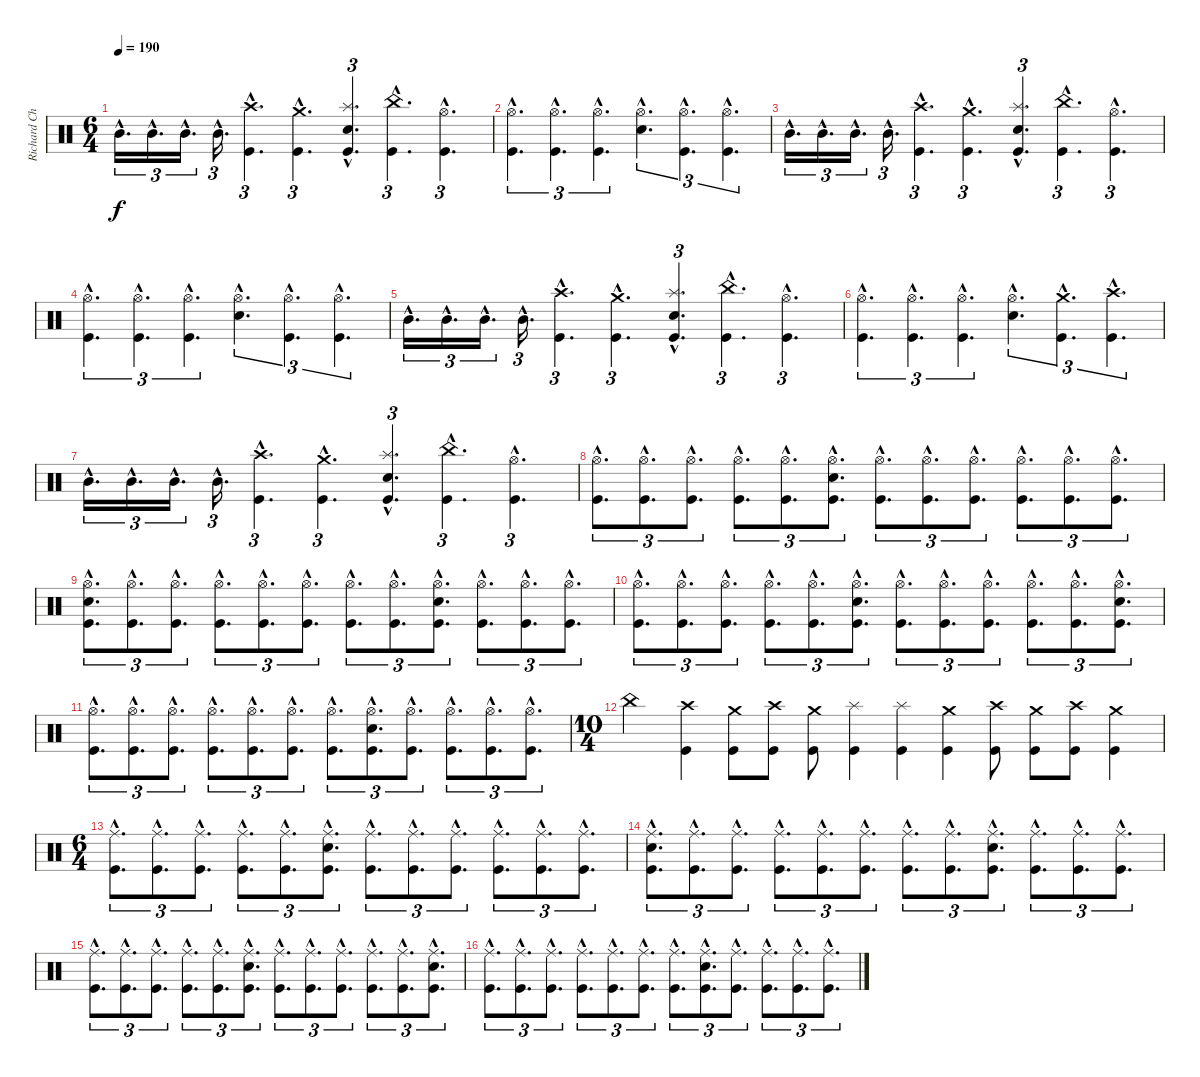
\track ("Richard Christy" "Richard Ch") {instrument percussion}
\staff {score}
\articulation defaults
\ts (6 4)
\tempo 190
\clef neutral
\ks c "Mid Tom (hit)"{hac}.16{d tu (3 2) dy f} "Mid Tom (hit)"{hac}.16{d tu (3 2)} "Mid Tom (hit)"{hac}.16{d tu (3 2)} "Mid Tom (hit)"{hac}.16{d tu (3 2)}
("Crash high (hit)"{hac} "Kick (hit)"{hac}).4{d tu (3 2)} ("Crash medium (hit)"{hac} "Kick (hit)"{hac}).4{d tu (3 2)} ("Splash (hit)"{hac} "Electric Snare (hit)"{hac} "Kick (hit)"{hac}).4{d tu (3 2)} ("China (hit)"{hac} "Kick (hit)"{hac}).4{d tu (3 2)} ("Hi-Hat (open)"{hac} "Kick (hit)"{hac}).4{d tu (3 2)} |
("Hi-Hat (open)"{hac} "Kick (hit)"{hac}).4{d tu (3 2)} ("Hi-Hat (open)"{hac} "Kick (hit)"{hac}).4{d tu (3 2)} ("Hi-Hat (open)"{hac} "Kick (hit)"{hac}).4{d tu (3 2)} ("Hi-Hat (open)"{hac} "Electric Snare (hit)"{hac}).4{d tu (3 2)} ("Hi-Hat (open)"{hac} "Kick (hit)"{hac}).4{d tu (3 2)} ("Hi-Hat (open)"{hac} "Kick (hit)"{hac}).4{d tu (3 2)} |
"Mid Tom (hit)"{hac}.16{d tu (3 2)} "Mid Tom (hit)"{hac}.16{d tu (3 2)} "Mid Tom (hit)"{hac}.16{d tu (3 2)} "Mid Tom (hit)"{hac}.16{d tu (3 2)} ("Crash high (hit)"{hac} "Kick (hit)"{hac}).4{d tu (3 2)} ("Crash medium (hit)"{hac} "Kick (hit)"{hac}).4{d tu (3 2)} ("Splash (hit)"{hac} "Electric Snare (hit)"{hac} "Kick (hit)"{hac}).4{d tu (3 2)} ("China (hit)"{hac} "Kick (hit)"{hac}).4{d tu (3 2)} ("Hi-Hat (open)"{hac} "Kick (hit)"{hac}).4{d tu (3 2)} |
("Hi-Hat (open)"{hac} "Kick (hit)"{hac}).4{d tu (3 2)} ("Hi-Hat (open)"{hac} "Kick (hit)"{hac}).4{d tu (3 2)} ("Hi-Hat (open)"{hac} "Kick (hit)"{hac}).4{d tu (3 2)} ("Hi-Hat (open)"{hac} "Electric Snare (hit)"{hac}).4{d tu (3 2)} ("Hi-Hat (open)"{hac} "Kick (hit)"{hac}).4{d tu (3 2)} ("Hi-Hat (open)"{hac} "Kick (hit)"{hac}).4{d tu (3 2)} |
"Mid Tom (hit)"{hac}.16{d tu (3 2)} "Mid Tom (hit)"{hac}.16{d tu (3 2)} "Mid Tom (hit)"{hac}.16{d tu (3 2)} "Mid Tom (hit)"{hac}.16{d tu (3 2)} ("Crash high (hit)"{hac} "Kick (hit)"{hac}).4{d tu (3 2)} ("Crash medium (hit)"{hac} "Kick (hit)"{hac}).4{d tu (3 2)} ("Splash (hit)"{hac} "Electric Snare (hit)"{hac} "Kick (hit)"{hac}).4{d tu (3 2)} ("China (hit)"{hac} "Kick (hit)"{hac}).4{d tu (3 2)} ("Hi-Hat (open)"{hac} "Kick (hit)"{hac}).4{d tu (3 2)} |
("Hi-Hat (open)"{hac} "Kick (hit)"{hac}).4{d tu (3 2)} ("Hi-Hat (open)"{hac} "Kick (hit)"{hac}).4{d tu (3 2)} ("Hi-Hat (open)"{hac} "Kick (hit)"{hac}).4{d tu (3 2)} ("Hi-Hat (open)"{hac} "Electric Snare (hit)"{hac}).4{d tu (3 2)} ("Crash medium (hit)"{hac} "Kick (hit)"{hac}).4{d tu (3 2)} ("Crash high (hit)"{hac} "Kick (hit)"{hac}).4{d tu (3 2)} |
"Mid Tom (hit)"{hac}.16{d tu (3 2)} "Mid Tom (hit)"{hac}.16{d tu (3 2)} "Mid Tom (hit)"{hac}.16{d tu (3 2)} "Mid Tom (hit)"{hac}.16{d tu (3 2)} ("Crash high (hit)"{hac} "Kick (hit)"{hac}).4{d tu (3 2)} ("Crash medium (hit)"{hac} "Kick (hit)"{hac}).4{d tu (3 2)} ("Splash (hit)"{hac} "Electric Snare (hit)"{hac} "Kick (hit)"{hac}).4{d tu (3 2)} ("China (hit)"{hac} "Kick (hit)"{hac}).4{d tu (3 2)} ("Hi-Hat (open)"{hac} "Kick (hit)"{hac}).4{d tu (3 2)} |
("Hi-Hat (open)"{hac} "Kick (hit)"{hac}).8{d tu (3 2)} ("Hi-Hat (open)"{hac} "Kick (hit)"{hac}).8{d tu (3 2)} ("Hi-Hat (open)"{hac} "Kick (hit)"{hac}).8{d tu (3 2)} ("Hi-Hat (open)"{hac} "Kick (hit)"{hac}).8{d tu (3 2)} ("Hi-Hat (open)"{hac} "Kick (hit)"{hac}).8{d tu (3 2)} ("Hi-Hat (open)"{hac} "Electric Snare (hit)"{hac} "Kick (hit)"{hac}).8{d tu (3 2)} ("Hi-Hat (open)"{hac} "Kick (hit)"{hac}).8{d tu (3 2)} ("Hi-Hat (open)"{hac} "Kick (hit)"{hac}).8{d tu (3 2)} ("Hi-Hat (open)"{hac} "Kick (hit)"{hac}).8{d tu (3 2)} ("Hi-Hat (open)"{hac} "Kick (hit)"{hac}).8{d tu (3 2)} ("Hi-Hat (open)"{hac} "Kick (hit)"{hac}).8{d tu (3 2)} ("Hi-Hat (open)"{hac} "Kick (hit)"{hac}).8{d tu (3 2)} |
("Hi-Hat (open)"{hac} "Electric Snare (hit)"{hac} "Kick (hit)"{hac}).8{d tu (3 2)} ("Hi-Hat (open)"{hac} "Kick (hit)"{hac}).8{d tu (3 2)} ("Hi-Hat (open)"{hac} "Kick (hit)"{hac}).8{d tu (3 2)} ("Hi-Hat (open)"{hac} "Kick (hit)"{hac}).8{d tu (3 2)} ("Hi-Hat (open)"{hac} "Kick (hit)"{hac}).8{d tu (3 2)} ("Hi-Hat (open)"{hac} "Kick (hit)"{hac}).8{d tu (3 2)} ("Hi-Hat (open)"{hac} "Kick (hit)"{hac}).8{d tu (3 2)} ("Hi-Hat (open)"{hac} "Kick (hit)"{hac}).8{d tu (3 2)} ("Hi-Hat (open)"{hac} "Electric Snare (hit)"{hac} "Kick (hit)"{hac}).8{d tu (3 2)} ("Hi-Hat (open)"{hac} "Kick (hit)"{hac}).8{d tu (3 2)} ("Hi-Hat (open)"{hac} "Kick (hit)"{hac}).8{d tu (3 2)} ("Hi-Hat (open)"{hac} "Kick (hit)"{hac}).8{d tu (3 2)} |
("Hi-Hat (open)"{hac} "Kick (hit)"{hac}).8{d tu (3 2)} ("Hi-Hat (open)"{hac} "Kick (hit)"{hac}).8{d tu (3 2)} ("Hi-Hat (open)"{hac} "Kick (hit)"{hac}).8{d tu (3 2)} ("Hi-Hat (open)"{hac} "Kick (hit)"{hac}).8{d tu (3 2)} ("Hi-Hat (open)"{hac} "Kick (hit)"{hac}).8{d tu (3 2)} ("Hi-Hat (open)"{hac} "Electric Snare (hit)"{hac} "Kick (hit)"{hac}).8{d tu (3 2)} ("Hi-Hat (open)"{hac} "Kick (hit)"{hac}).8{d tu (3 2)} ("Hi-Hat (open)"{hac} "Kick (hit)"{hac}).8{d tu (3 2)} ("Hi-Hat (open)"{hac} "Kick (hit)"{hac}).8{d tu (3 2)} ("Hi-Hat (open)"{hac} "Kick (hit)"{hac}).8{d tu (3 2)} ("Hi-Hat (open)"{hac} "Kick (hit)"{hac}).8{d tu (3 2)} ("Hi-Hat (open)"{hac} "Electric Snare (hit)"{hac} "Kick (hit)"{hac}).8{d tu (3 2)} |
("Hi-Hat (open)"{hac} "Kick (hit)"{hac}).8{d tu (3 2)} ("Hi-Hat (open)"{hac} "Kick (hit)"{hac}).8{d tu (3 2)} ("Hi-Hat (open)"{hac} "Kick (hit)"{hac}).8{d tu (3 2)} ("Hi-Hat (open)"{hac} "Kick (hit)"{hac}).8{d tu (3 2)} ("Hi-Hat (open)"{hac} "Kick (hit)"{hac}).8{d tu (3 2)} ("Hi-Hat (open)"{hac} "Kick (hit)"{hac}).8{d tu (3 2)} ("Hi-Hat (open)"{hac} "Kick (hit)"{hac}).8{d tu (3 2)} ("Hi-Hat (open)"{hac} "Electric Snare (hit)"{hac} "Kick (hit)"{hac}).8{d tu (3 2)} ("Hi-Hat (open)"{hac} "Kick (hit)"{hac}).8{d tu (3 2)} ("Hi-Hat (open)"{hac} "Kick (hit)"{hac}).8{d tu (3 2)} ("Hi-Hat (open)"{hac} "Kick (hit)"{hac}).8{d tu (3 2)} ("Hi-Hat (open)"{hac} "Kick (hit)"{hac}).8{d tu (3 2)} |
\ts (10 4)
"China (hit)".2 ("Crash high (hit)" "Kick (hit)").4 ("Crash medium (hit)" "Kick (hit)").8 ("Crash high (hit)" "Kick (hit)").8 ("Crash medium (hit)" "Kick (hit)").8 ("Splash (hit)" "Kick (hit)").4 ("Splash (hit)" "Kick (hit)").4 ("Crash medium (hit)" "Kick (hit)").4 ("Crash high (hit)" "Kick (hit)").8 ("Crash medium (hit)" "Kick (hit)").8 ("Crash high (hit)" "Kick (hit)").8 ("Crash medium (hit)" "Kick (hit)").4 |
\ts (6 4)
("Ride (middle)"{hac} "Kick (hit)"{hac}).8{d tu (3 2)} ("Ride (middle)"{hac} "Kick (hit)"{hac}).8{d tu (3 2)} ("Ride (middle)"{hac} "Kick (hit)"{hac}).8{d tu (3 2)} ("Ride (middle)"{hac} "Kick (hit)"{hac}).8{d tu (3 2)} ("Ride (middle)"{hac} "Kick (hit)"{hac}).8{d tu (3 2)} ("Ride (middle)"{hac} "Electric Snare (hit)"{hac} "Kick (hit)"{hac}).8{d tu (3 2)} ("Ride (middle)"{hac} "Kick (hit)"{hac}).8{d tu (3 2)} ("Ride (middle)"{hac} "Kick (hit)"{hac}).8{d tu (3 2)} ("Ride (middle)"{hac} "Kick (hit)"{hac}).8{d tu (3 2)} ("Ride (middle)"{hac} "Kick (hit)"{hac}).8{d tu (3 2)} ("Ride (middle)"{hac} "Kick (hit)"{hac}).8{d tu (3 2)} ("Ride (middle)"{hac} "Kick (hit)"{hac}).8{d tu (3 2)} |
("Ride (middle)"{hac} "Electric Snare (hit)"{hac} "Kick (hit)"{hac}).8{d tu (3 2)} ("Ride (middle)"{hac} "Kick (hit)"{hac}).8{d tu (3 2)} ("Ride (middle)"{hac} "Kick (hit)"{hac}).8{d tu (3 2)} ("Ride (middle)"{hac} "Kick (hit)"{hac}).8{d tu (3 2)} ("Ride (middle)"{hac} "Kick (hit)"{hac}).8{d tu (3 2)} ("Ride (middle)"{hac} "Kick (hit)"{hac}).8{d tu (3 2)} ("Ride (middle)"{hac} "Kick (hit)"{hac}).8{d tu (3 2)} ("Ride (middle)"{hac} "Kick (hit)"{hac}).8{d tu (3 2)} ("Ride (middle)"{hac} "Electric Snare (hit)"{hac} "Kick (hit)"{hac}).8{d tu (3 2)} ("Ride (middle)"{hac} "Kick (hit)"{hac}).8{d tu (3 2)} ("Ride (middle)"{hac} "Kick (hit)"{hac}).8{d tu (3 2)} ("Ride (middle)"{hac} "Kick (hit)"{hac}).8{d tu (3 2)} |
("Ride (middle)"{hac} "Kick (hit)"{hac}).8{d tu (3 2)} ("Ride (middle)"{hac} "Kick (hit)"{hac}).8{d tu (3 2)} ("Ride (middle)"{hac} "Kick (hit)"{hac}).8{d tu (3 2)} ("Ride (middle)"{hac} "Kick (hit)"{hac}).8{d tu (3 2)} ("Ride (middle)"{hac} "Kick (hit)"{hac}).8{d tu (3 2)} ("Ride (middle)"{hac} "Electric Snare (hit)"{hac} "Kick (hit)"{hac}).8{d tu (3 2)} ("Ride (middle)"{hac} "Kick (hit)"{hac}).8{d tu (3 2)} ("Ride (middle)"{hac} "Kick (hit)"{hac}).8{d tu (3 2)} ("Ride (middle)"{hac} "Kick (hit)"{hac}).8{d tu (3 2)} ("Ride (middle)"{hac} "Kick (hit)"{hac}).8{d tu (3 2)} ("Ride (middle)"{hac} "Kick (hit)"{hac}).8{d tu (3 2)} ("Ride (middle)"{hac} "Electric Snare (hit)"{hac} "Kick (hit)"{hac}).8{d tu (3 2)} |
("Ride (middle)"{hac} "Kick (hit)"{hac}).8{d tu (3 2)} ("Ride (middle)"{hac} "Kick (hit)"{hac}).8{d tu (3 2)} ("Ride (middle)"{hac} "Kick (hit)"{hac}).8{d tu (3 2)} ("Ride (middle)"{hac} "Kick (hit)"{hac}).8{d tu (3 2)} ("Ride (middle)"{hac} "Kick (hit)"{hac}).8{d tu (3 2)} ("Ride (middle)"{hac} "Kick (hit)"{hac}).8{d tu (3 2)} ("Ride (middle)"{hac} "Kick (hit)"{hac}).8{d tu (3 2)} ("Ride (middle)"{hac} "Electric Snare (hit)"{hac} "Kick (hit)"{hac}).8{d tu (3 2)} ("Ride (middle)"{hac} "Kick (hit)"{hac}).8{d tu (3 2)} ("Ride (middle)"{hac} "Kick (hit)"{hac}).8{d tu (3 2)} ("Ride (middle)"{hac} "Kick (hit)"{hac}).8{d tu (3 2)} ("Ride (middle)"{hac} "Kick (hit)"{hac}).8{d tu (3 2)}
